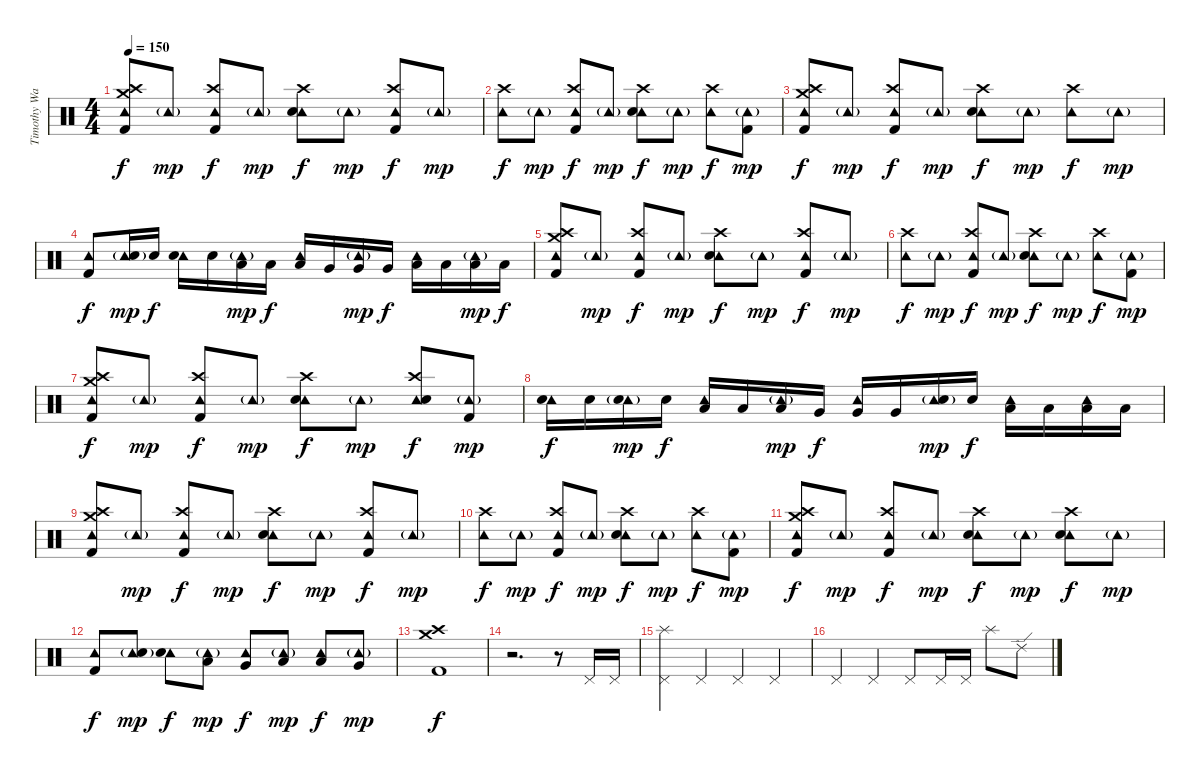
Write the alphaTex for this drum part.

\track ("Timothy Watts" "Timothy Wa") {instrument percussion}
\staff {score}
\articulation defaults
\ts (4 4)
\tempo 150
\clef neutral
\ks c
("Tambourine (hit)" "Crash medium (hit)" "Crash high (hit)" "Kick (hit) 2").8{dy f} "Tambourine (hit)"{g}.8{dy mp} ("Tambourine (hit)" "Crash high (hit)" "Kick (hit) 2").8{dy f} "Tambourine (hit)"{g}.8{dy mp} ("Tambourine (hit)" "Crash high (hit)" "Electric Snare (hit)").8{dy f} "Tambourine (hit)"{g}.8{dy mp} ("Tambourine (hit)" "Crash high (hit)" "Kick (hit) 2").8{dy f} "Tambourine (hit)"{g}.8{dy mp} |
("Tambourine (hit)" "Crash high (hit)").8{dy f} "Tambourine (hit)"{g}.8{dy mp} ("Tambourine (hit)" "Crash high (hit)" "Kick (hit) 2").8{dy f} "Tambourine (hit)"{g}.8{dy mp} ("Tambourine (hit)" "Crash high (hit)" "Electric Snare (hit)").8{dy f} "Tambourine (hit)"{g}.8{dy mp} ("Tambourine (hit)" "Crash high (hit)").8{dy f} ("Tambourine (hit)"{g} "Kick (hit) 2").8{dy mp} |
("Tambourine (hit)" "Crash medium (hit)" "Crash high (hit)" "Kick (hit) 2").8{dy f} "Tambourine (hit)"{g}.8{dy mp} ("Tambourine (hit)" "Crash high (hit)" "Kick (hit) 2").8{dy f} "Tambourine (hit)"{g}.8{dy mp} ("Tambourine (hit)" "Crash high (hit)" "Electric Snare (hit)").8{dy f} "Tambourine (hit)"{g}.8{dy mp} ("Tambourine (hit)" "Crash high (hit)").8{dy f} "Tambourine (hit)"{g}.8{dy mp} |
("Tambourine (hit)" "Kick (hit) 2").8{dy f} ("Tambourine (hit)"{g} "Electric Snare (hit)").16{dy mp} "Electric Snare (hit)".16{dy f} ("Tambourine (hit)" "Electric Snare (hit)").16 "Electric Snare (hit)".16 ("Tambourine (hit)"{g} "Low Tom (hit)").16{dy mp} "Low Tom (hit)".16{dy f} ("Tambourine (hit)" "Low Tom (hit)").16 "Very Low Tom (hit)".16 ("Tambourine (hit)"{g} "Very Low Tom (hit)").16{dy mp} "Very Low Tom (hit)".16{dy f} ("Tambourine (hit)" "Low Floor Tom (hit)").16 "Low Floor Tom (hit)".16 ("Tambourine (hit)"{g} "Low Floor Tom (hit)").16{dy mp} "Low Floor Tom (hit)".16{dy f} |
("Tambourine (hit)" "Crash medium (hit)" "Crash high (hit)" "Kick (hit) 2").8 "Tambourine (hit)"{g}.8{dy mp} ("Tambourine (hit)" "Crash high (hit)" "Kick (hit) 2").8{dy f} "Tambourine (hit)"{g}.8{dy mp} ("Tambourine (hit)" "Crash high (hit)" "Electric Snare (hit)").8{dy f} "Tambourine (hit)"{g}.8{dy mp} ("Tambourine (hit)" "Crash high (hit)" "Kick (hit) 2").8{dy f} "Tambourine (hit)"{g}.8{dy mp} |
("Tambourine (hit)" "Crash high (hit)").8{dy f} "Tambourine (hit)"{g}.8{dy mp} ("Tambourine (hit)" "Crash high (hit)" "Kick (hit) 2").8{dy f} "Tambourine (hit)"{g}.8{dy mp} ("Tambourine (hit)" "Crash high (hit)" "Electric Snare (hit)").8{dy f} "Tambourine (hit)"{g}.8{dy mp} ("Tambourine (hit)" "Crash high (hit)").8{dy f} ("Tambourine (hit)"{g} "Kick (hit) 2").8{dy mp} |
("Tambourine (hit)" "Crash medium (hit)" "Crash high (hit)" "Kick (hit) 2").8{dy f} "Tambourine (hit)"{g}.8{dy mp} ("Tambourine (hit)" "Crash high (hit)" "Kick (hit) 2").8{dy f} "Tambourine (hit)"{g}.8{dy mp} ("Tambourine (hit)" "Crash high (hit)" "Electric Snare (hit)").8{dy f} "Tambourine (hit)"{g}.8{dy mp} ("Tambourine (hit)" "Crash high (hit)" "Electric Snare (hit)").8{dy f} ("Tambourine (hit)"{g} "Kick (hit) 2").8{dy mp} |
("Tambourine (hit)" "Electric Snare (hit)").16{dy f} "Electric Snare (hit)".16 ("Tambourine (hit)"{g} "Electric Snare (hit)").16{dy mp} "Electric Snare (hit)".16{dy f} ("Tambourine (hit)" "Low Tom (hit)").16 "Low Tom (hit)".16 ("Tambourine (hit)"{g} "Low Tom (hit)").16{dy mp} "Very Low Tom (hit)".16{dy f} ("Tambourine (hit)" "Very Low Tom (hit)").16 "Very Low Tom (hit)".16 ("Tambourine (hit)"{g} "Electric Snare (hit)").16{dy mp} "Electric Snare (hit)".16{dy f} ("Tambourine (hit)" "Low Floor Tom (hit)").16 "Low Floor Tom (hit)".16 ("Tambourine (hit)" "Low Floor Tom (hit)").16 "Low Floor Tom (hit)".16 |
("Tambourine (hit)" "Crash medium (hit)" "Crash high (hit)" "Kick (hit) 2").8 "Tambourine (hit)"{g}.8{dy mp} ("Tambourine (hit)" "Crash high (hit)" "Kick (hit) 2").8{dy f} "Tambourine (hit)"{g}.8{dy mp} ("Tambourine (hit)" "Crash high (hit)" "Electric Snare (hit)").8{dy f} "Tambourine (hit)"{g}.8{dy mp} ("Tambourine (hit)" "Crash high (hit)" "Kick (hit) 2").8{dy f} "Tambourine (hit)"{g}.8{dy mp} |
("Tambourine (hit)" "Crash high (hit)").8{dy f} "Tambourine (hit)"{g}.8{dy mp} ("Tambourine (hit)" "Crash high (hit)" "Kick (hit) 2").8{dy f} "Tambourine (hit)"{g}.8{dy mp} ("Tambourine (hit)" "Crash high (hit)" "Electric Snare (hit)").8{dy f} "Tambourine (hit)"{g}.8{dy mp} ("Tambourine (hit)" "Crash high (hit)").8{dy f} ("Tambourine (hit)"{g} "Kick (hit) 2").8{dy mp} |
("Tambourine (hit)" "Crash medium (hit)" "Crash high (hit)" "Kick (hit) 2").8{dy f} "Tambourine (hit)"{g}.8{dy mp} ("Tambourine (hit)" "Crash high (hit)" "Kick (hit) 2").8{dy f} "Tambourine (hit)"{g}.8{dy mp} ("Tambourine (hit)" "Crash high (hit)" "Electric Snare (hit)").8{dy f} "Tambourine (hit)"{g}.8{dy mp} ("Tambourine (hit)" "Crash high (hit)" "Electric Snare (hit)").8{dy f} "Tambourine (hit)"{g}.8{dy mp} |
("Tambourine (hit)" "Kick (hit) 2").8{dy f} ("Tambourine (hit)"{g} "Electric Snare (hit)").8{dy mp} ("Tambourine (hit)" "Electric Snare (hit)").8{dy f} ("Tambourine (hit)"{g} "Low Tom (hit)").8{dy mp} ("Tambourine (hit)" "Very Low Tom (hit)").8{dy f} ("Tambourine (hit)"{g} "Low Floor Tom (hit)").8{dy mp} ("Tambourine (hit)" "Low Tom (hit)").8{dy f} ("Tambourine (hit)"{g} "Very Low Tom (hit)").8{dy mp} |
("Crash medium (hit)" "Crash high (hit)" "Kick (hit) 2").1{dy f} |
r.2{d} r.8 "Pedal Hi-Hat (hit)".16 "Pedal Hi-Hat (hit)".16 |
("Splash (hit)" "Pedal Hi-Hat (hit)").4 "Pedal Hi-Hat (hit)".4 "Pedal Hi-Hat (hit)".4 "Pedal Hi-Hat (hit)".4 |
"Pedal Hi-Hat (hit)".4 "Pedal Hi-Hat (hit)".4 "Pedal Hi-Hat (hit)".8 "Pedal Hi-Hat (hit)".16 "Pedal Hi-Hat (hit)".16 "Splash (hit)".8 "Ride (edge) 2".8
